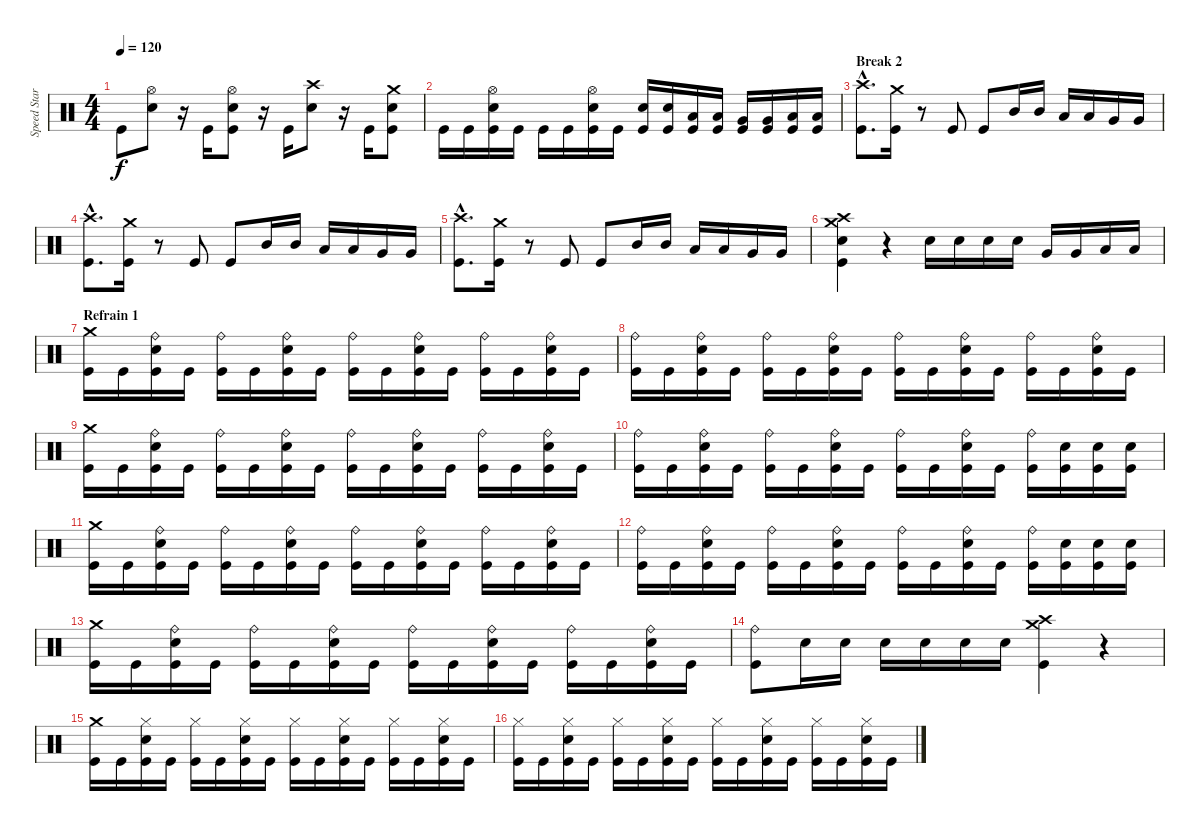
\track ("Speed Star" "Speed Star") {instrument percussion}
\staff {score}
\articulation defaults
\ts (4 4)
\tempo 120
\clef neutral
\ks c "Kick (hit)".8{dy f}
("Snare (hit) 2" "Hi-Hat (open)").8 r.16 "Kick (hit)".16 ("Kick (hit)" "Snare (hit) 2" "Hi-Hat (open)").8 r.16 "Kick (hit)".16 ("Snare (hit) 2" "Crash high (hit)").8 r.16 "Kick (hit)".16 ("Kick (hit)" "Snare (hit) 2" "Crash medium (hit)").8 |
"Kick (hit)".16 "Kick (hit)".16 ("Kick (hit)" "Snare (hit) 2" "Hi-Hat (open)").16 "Kick (hit)".16 "Kick (hit)".16 "Kick (hit)".16 ("Kick (hit)" "Snare (hit) 2" "Hi-Hat (open)").16 "Kick (hit)".16 ("Kick (hit)" "Snare (hit) 2").16 ("Kick (hit)" "Snare (hit) 2").16 ("Kick (hit)" "Low Floor Tom (hit)").16 ("Kick (hit)" "Low Floor Tom (hit)").16 ("Kick (hit)" "Very Low Tom (hit)").16 ("Kick (hit)" "Very Low Tom (hit)").16 ("Kick (hit)" "Low Floor Tom (hit)").16 ("Kick (hit)" "Low Floor Tom (hit)").16 |
\section ("" "Break 2")
("Kick (hit)"{hac} "Crash high (hit)"{hac}).8{d} ("Kick (hit)" "Crash medium (hit)").16 r.8 "Kick (hit)".8 "Kick (hit)".8 "Mid Tom (hit)".16 "Mid Tom (hit)".16 "Low Tom (hit)".16 "Low Tom (hit)".16 "Very Low Tom (hit)".16 "Very Low Tom (hit)".16 |
("Kick (hit)"{hac} "Crash high (hit)"{hac}).8{d} ("Kick (hit)" "Crash medium (hit)").16 r.8 "Kick (hit)".8 "Kick (hit)".8 "Mid Tom (hit)".16 "Mid Tom (hit)".16 "Low Tom (hit)".16 "Low Tom (hit)".16 "Very Low Tom (hit)".16 "Very Low Tom (hit)".16 |
("Kick (hit)"{hac} "Crash high (hit)"{hac}).8{d} ("Kick (hit)" "Crash medium (hit)").16 r.8 "Kick (hit)".8 "Kick (hit)".8 "Mid Tom (hit)".16 "Mid Tom (hit)".16 "Low Tom (hit)".16 "Low Tom (hit)".16 "Very Low Tom (hit)".16 "Very Low Tom (hit)".16 |
("Kick (hit)" "Crash high (hit)" "Crash medium (hit)" "Snare (hit) 2").4 r.4 "Snare (hit) 2".16 "Snare (hit) 2".16 "Snare (hit) 2".16 "Snare (hit) 2".16 "Very Low Tom (hit)".16 "Very Low Tom (hit)".16 "Low Tom (hit)".16 "Low Tom (hit)".16 |
\section ("" "Refrain 1")
("Kick (hit)" "Crash medium (hit)").16 "Kick (hit)".16 ("Kick (hit)" "Snare (hit) 2" "Ride (bell)").16 "Kick (hit)".16 ("Kick (hit)" "Ride (bell)").16 "Kick (hit)".16 ("Kick (hit)" "Snare (hit) 2" "Ride (bell)").16 "Kick (hit)".16 ("Kick (hit)" "Ride (bell)").16 "Kick (hit)".16 ("Kick (hit)" "Snare (hit) 2" "Ride (bell)").16 "Kick (hit)".16 ("Kick (hit)" "Ride (bell)").16 "Kick (hit)".16 ("Kick (hit)" "Snare (hit) 2" "Ride (bell)").16 "Kick (hit)".16 |
("Kick (hit)" "Ride (bell)").16 "Kick (hit)".16 ("Kick (hit)" "Snare (hit) 2" "Ride (bell)").16 "Kick (hit)".16 ("Kick (hit)" "Ride (bell)").16 "Kick (hit)".16 ("Kick (hit)" "Snare (hit) 2" "Ride (bell)").16 "Kick (hit)".16 ("Kick (hit)" "Ride (bell)").16 "Kick (hit)".16 ("Kick (hit)" "Snare (hit) 2" "Ride (bell)").16 "Kick (hit)".16 ("Kick (hit)" "Ride (bell)").16 "Kick (hit)".16 ("Kick (hit)" "Snare (hit) 2" "Ride (bell)").16 "Kick (hit)".16 |
("Kick (hit)" "Crash medium (hit)").16 "Kick (hit)".16 ("Kick (hit)" "Snare (hit) 2" "Ride (bell)").16 "Kick (hit)".16 ("Kick (hit)" "Ride (bell)").16 "Kick (hit)".16 ("Kick (hit)" "Snare (hit) 2" "Ride (bell)").16 "Kick (hit)".16 ("Kick (hit)" "Ride (bell)").16 "Kick (hit)".16 ("Kick (hit)" "Snare (hit) 2" "Ride (bell)").16 "Kick (hit)".16 ("Kick (hit)" "Ride (bell)").16 "Kick (hit)".16 ("Kick (hit)" "Snare (hit) 2" "Ride (bell)").16 "Kick (hit)".16 |
("Kick (hit)" "Ride (bell)").16 "Kick (hit)".16 ("Kick (hit)" "Snare (hit) 2" "Ride (bell)").16 "Kick (hit)".16 ("Kick (hit)" "Ride (bell)").16 "Kick (hit)".16 ("Kick (hit)" "Snare (hit) 2" "Ride (bell)").16 "Kick (hit)".16 ("Kick (hit)" "Ride (bell)").16 "Kick (hit)".16 ("Kick (hit)" "Snare (hit) 2" "Ride (bell)").16 "Kick (hit)".16 ("Kick (hit)" "Ride (bell)").16 ("Kick (hit)" "Snare (hit) 2").16 ("Kick (hit)" "Snare (hit) 2").16 ("Kick (hit)" "Snare (hit) 2").16 |
("Kick (hit)" "Crash medium (hit)").16 "Kick (hit)".16 ("Kick (hit)" "Snare (hit) 2" "Ride (bell)").16 "Kick (hit)".16 ("Kick (hit)" "Ride (bell)").16 "Kick (hit)".16 ("Kick (hit)" "Snare (hit) 2" "Ride (bell)").16 "Kick (hit)".16 ("Kick (hit)" "Ride (bell)").16 "Kick (hit)".16 ("Kick (hit)" "Snare (hit) 2" "Ride (bell)").16 "Kick (hit)".16 ("Kick (hit)" "Ride (bell)").16 "Kick (hit)".16 ("Kick (hit)" "Snare (hit) 2" "Ride (bell)").16 "Kick (hit)".16 |
("Kick (hit)" "Ride (bell)").16 "Kick (hit)".16 ("Kick (hit)" "Snare (hit) 2" "Ride (bell)").16 "Kick (hit)".16 ("Kick (hit)" "Ride (bell)").16 "Kick (hit)".16 ("Kick (hit)" "Snare (hit) 2" "Ride (bell)").16 "Kick (hit)".16 ("Kick (hit)" "Ride (bell)").16 "Kick (hit)".16 ("Kick (hit)" "Snare (hit) 2" "Ride (bell)").16 "Kick (hit)".16 ("Kick (hit)" "Ride (bell)").16 ("Kick (hit)" "Snare (hit) 2").16 ("Kick (hit)" "Snare (hit) 2").16 ("Kick (hit)" "Snare (hit) 2").16 |
("Kick (hit)" "Crash medium (hit)").16 "Kick (hit)".16 ("Kick (hit)" "Snare (hit) 2" "Ride (bell)").16 "Kick (hit)".16 ("Kick (hit)" "Ride (bell)").16 "Kick (hit)".16 ("Kick (hit)" "Snare (hit) 2" "Ride (bell)").16 "Kick (hit)".16 ("Kick (hit)" "Ride (bell)").16 "Kick (hit)".16 ("Kick (hit)" "Snare (hit) 2" "Ride (bell)").16 "Kick (hit)".16 ("Kick (hit)" "Ride (bell)").16 "Kick (hit)".16 ("Kick (hit)" "Snare (hit) 2" "Ride (bell)").16 "Kick (hit)".16 |
("Kick (hit)" "Ride (bell)").8 "Snare (hit) 2".16 "Snare (hit) 2".16 "Snare (hit) 2".16 "Snare (hit) 2".16 "Snare (hit) 2".16 "Snare (hit) 2".16 ("Kick (hit)" "Crash high (hit)" "Crash medium (hit)").4 r.4 |
("Kick (hit)" "Crash medium (hit)").16 "Kick (hit)".16 ("Kick (hit)" "Snare (hit) 2" "Hi-Hat (closed)").16 "Kick (hit)".16 ("Kick (hit)" "Hi-Hat (closed)").16 "Kick (hit)".16 ("Kick (hit)" "Snare (hit) 2" "Hi-Hat (closed)").16 "Kick (hit)".16 ("Kick (hit)" "Hi-Hat (closed)").16 "Kick (hit)".16 ("Kick (hit)" "Snare (hit) 2" "Hi-Hat (closed)").16 "Kick (hit)".16 ("Kick (hit)" "Hi-Hat (closed)").16 "Kick (hit)".16 ("Kick (hit)" "Snare (hit) 2" "Hi-Hat (closed)").16 "Kick (hit)".16 |
("Kick (hit)" "Hi-Hat (closed)").16 "Kick (hit)".16 ("Kick (hit)" "Snare (hit) 2" "Hi-Hat (closed)").16 "Kick (hit)".16 ("Kick (hit)" "Hi-Hat (closed)").16 "Kick (hit)".16 ("Kick (hit)" "Snare (hit) 2" "Hi-Hat (closed)").16 "Kick (hit)".16 ("Kick (hit)" "Hi-Hat (closed)").16 "Kick (hit)".16 ("Kick (hit)" "Snare (hit) 2" "Hi-Hat (closed)").16 "Kick (hit)".16 ("Kick (hit)" "Hi-Hat (closed)").16 "Kick (hit)".16 ("Kick (hit)" "Snare (hit) 2" "Hi-Hat (closed)").16 "Kick (hit)".16
